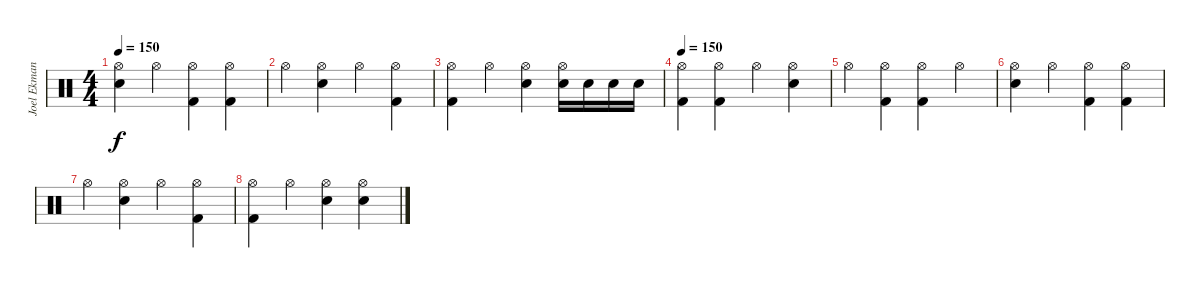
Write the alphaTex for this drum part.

\track ("Joel Ekman" "Joel Ekman") {instrument percussion}
\staff {score}
\articulation defaults
\ts (4 4)
\tempo 150
\clef neutral
\ks c
("Hi-Hat (open)" "Electric Snare (hit)").4{dy f} "Hi-Hat (open)".4 ("Hi-Hat (open)" "Kick (hit) 2").4 ("Hi-Hat (open)" "Kick (hit) 2").4 |
"Hi-Hat (open)".4 ("Hi-Hat (open)" "Electric Snare (hit)").4 "Hi-Hat (open)".4 ("Hi-Hat (open)" "Kick (hit) 2").4 |
("Hi-Hat (open)" "Kick (hit) 2").4 "Hi-Hat (open)".4 ("Hi-Hat (open)" "Electric Snare (hit)").4 ("Hi-Hat (open)" "Electric Snare (hit)").16 "Electric Snare (hit)".16 "Electric Snare (hit)".16 "Electric Snare (hit)".16 |
\tempo 150
("Hi-Hat (open)" "Kick (hit) 2").4 ("Hi-Hat (open)" "Kick (hit) 2").4 "Hi-Hat (open)".4 ("Hi-Hat (open)" "Electric Snare (hit)").4 |
"Hi-Hat (open)".4 ("Hi-Hat (open)" "Kick (hit) 2").4 ("Hi-Hat (open)" "Kick (hit) 2").4 "Hi-Hat (open)".4 |
("Hi-Hat (open)" "Electric Snare (hit)").4 "Hi-Hat (open)".4 ("Hi-Hat (open)" "Kick (hit) 2").4 ("Hi-Hat (open)" "Kick (hit) 2").4 |
"Hi-Hat (open)".4 ("Hi-Hat (open)" "Electric Snare (hit)").4 "Hi-Hat (open)".4 ("Hi-Hat (open)" "Kick (hit) 2").4 |
("Hi-Hat (open)" "Kick (hit) 2").4 "Hi-Hat (open)".4 ("Hi-Hat (open)" "Electric Snare (hit)").4 ("Hi-Hat (open)" "Electric Snare (hit)").4
